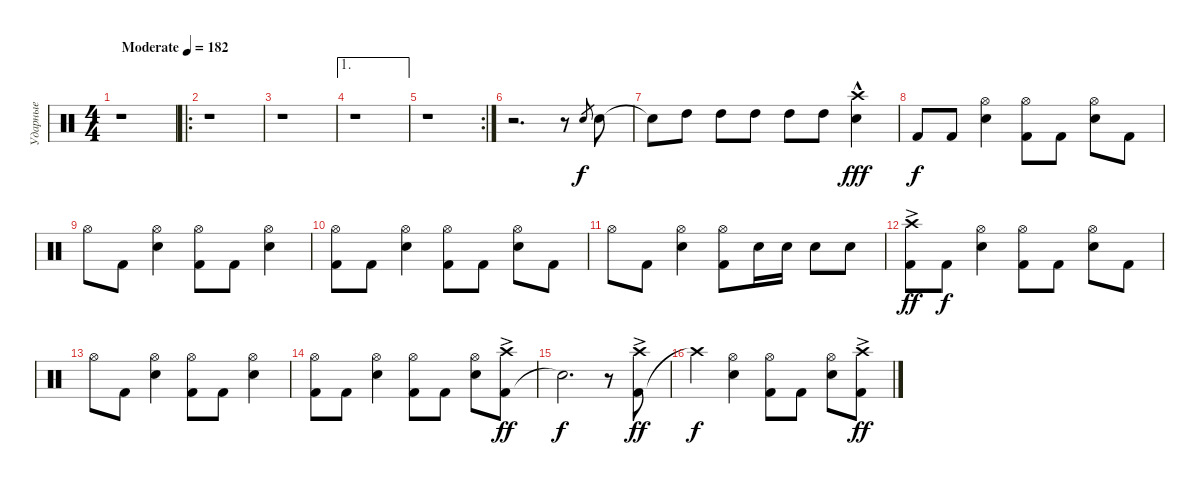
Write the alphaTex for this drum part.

\track ("Ударные" "Ударные") {instrument percussion}
\staff {score}
\articulation defaults
\ts (4 4)
\tempo (182 "Moderate")
\clef neutral
\ks c
r.1{dy f} |
\ro
r.1 |
r.1 |
\ae 1
r.1 |
\rc 2
r.1 |
r.2{d} r.8 "Snare (hit) 2".8{gr} "Snare (hit) 2".8 |
"Snare (hit)"{t}.8 "High Tom (hit)".8 "High Tom (hit)".8 "High Tom (hit)".8 "High Tom (hit)".8 "High Tom (hit)".8 ("Snare (hit) 2" "Crash high (hit)"{hac}).4{dy fff} |
"Kick (hit) 2".8{dy f} "Kick (hit) 2".8 ("Snare (hit) 2" "Hi-Hat (open)").4 ("Kick (hit) 2" "Hi-Hat (open)").8 "Kick (hit) 2".8 ("Snare (hit) 2" "Hi-Hat (open)").8 "Kick (hit) 2".8 |
"Hi-Hat (open)".8 "Kick (hit) 2".8 ("Snare (hit) 2" "Hi-Hat (open)").4 ("Kick (hit) 2" "Hi-Hat (open)").8 "Kick (hit) 2".8 ("Snare (hit) 2" "Hi-Hat (open)").4 |
("Kick (hit) 2" "Hi-Hat (open)").8 "Kick (hit) 2".8 ("Snare (hit) 2" "Hi-Hat (open)").4 ("Kick (hit) 2" "Hi-Hat (open)").8 "Kick (hit) 2".8 ("Snare (hit) 2" "Hi-Hat (open)").8 "Kick (hit) 2".8 |
"Hi-Hat (open)".8 "Kick (hit) 2".8 ("Snare (hit) 2" "Hi-Hat (open)").4 ("Kick (hit) 2" "Hi-Hat (open)").8 "Snare (hit) 2".16 "Snare (hit) 2".16 "Snare (hit) 2".8 "Snare (hit) 2".8 |
("Kick (hit) 2" "Crash high (hit)"{ac}).8{dy ff} "Kick (hit) 2".8{dy f} ("Snare (hit) 2" "Hi-Hat (open)").4 ("Kick (hit) 2" "Hi-Hat (open)").8 "Kick (hit) 2".8 ("Snare (hit) 2" "Hi-Hat (open)").8 "Kick (hit) 2".8 |
"Hi-Hat (open)".8 "Kick (hit) 2".8 ("Snare (hit) 2" "Hi-Hat (open)").4 ("Kick (hit) 2" "Hi-Hat (open)").8 "Kick (hit) 2".8 ("Snare (hit) 2" "Hi-Hat (open)").4 |
("Kick (hit) 2" "Hi-Hat (open)").8 "Kick (hit) 2".8 ("Snare (hit) 2" "Hi-Hat (open)").4 ("Kick (hit) 2" "Hi-Hat (open)").8 "Kick (hit) 2".8 ("Snare (hit) 2" "Hi-Hat (open)").8 ("Kick (hit) 2" "Crash high (hit)"{ac}).8{dy ff} |
"Snare (hit)"{t}.2{d dy f} r.8 ("Kick (hit) 2" "Crash high (hit)"{ac}).8{dy ff} |
"Crash high (hit)"{t}.4{dy f} ("Snare (hit) 2" "Hi-Hat (open)").4 ("Kick (hit) 2" "Hi-Hat (open)").8 "Kick (hit) 2".8 ("Snare (hit) 2" "Hi-Hat (open)").8 ("Kick (hit) 2" "Crash high (hit)"{ac}).8{dy ff}
